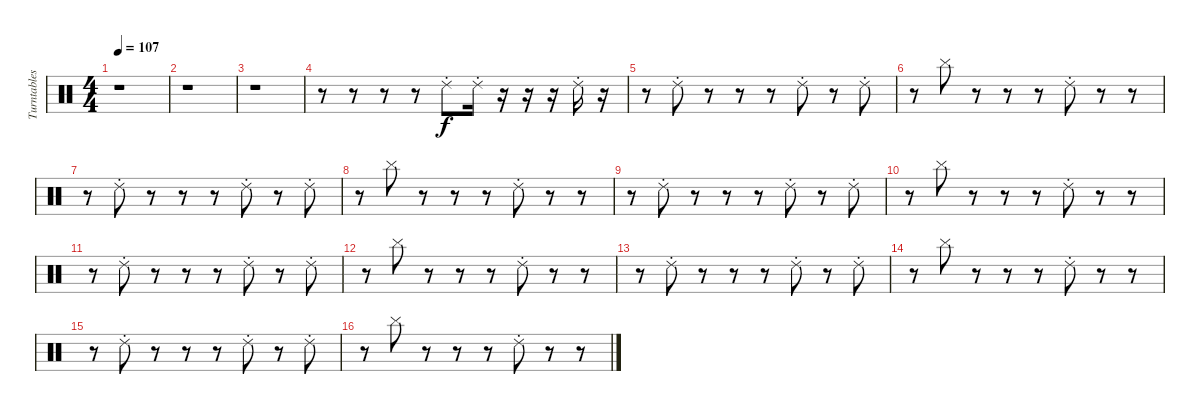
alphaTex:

\track ("Turntables" "Turntables") {instrument percussion}
\staff {score}
\articulation defaults
\ts (4 4)
\tempo 107
\clef neutral
\ks c
r.1{dy f} |
r.1 |
r.1 |
r.8 r.8 r.8 r.8 "Ride (choke) 2".8 "Ride (choke) 2".16 r.16 r.16 r.16 "Ride (choke) 2".16 r.16 |
r.8 "Ride (choke) 2".8 r.8 r.8 r.8 "Ride (choke) 2".8 r.8 "Ride (choke) 2".8 |
r.8 "Cymbal (hit)".8 r.8 r.8 r.8 "Ride (choke) 2".8 r.8 r.8 |
r.8 "Ride (choke) 2".8 r.8 r.8 r.8 "Ride (choke) 2".8 r.8 "Ride (choke) 2".8 |
r.8 "Cymbal (hit)".8 r.8 r.8 r.8 "Ride (choke) 2".8 r.8 r.8 |
r.8 "Ride (choke) 2".8 r.8 r.8 r.8 "Ride (choke) 2".8 r.8 "Ride (choke) 2".8 |
r.8 "Cymbal (hit)".8 r.8 r.8 r.8 "Ride (choke) 2".8 r.8 r.8 |
r.8 "Ride (choke) 2".8 r.8 r.8 r.8 "Ride (choke) 2".8 r.8 "Ride (choke) 2".8 |
r.8 "Cymbal (hit)".8 r.8 r.8 r.8 "Ride (choke) 2".8 r.8 r.8 |
r.8 "Ride (choke) 2".8 r.8 r.8 r.8 "Ride (choke) 2".8 r.8 "Ride (choke) 2".8 |
r.8 "Cymbal (hit)".8 r.8 r.8 r.8 "Ride (choke) 2".8 r.8 r.8 |
r.8 "Ride (choke) 2".8 r.8 r.8 r.8 "Ride (choke) 2".8 r.8 "Ride (choke) 2".8 |
r.8 "Cymbal (hit)".8 r.8 r.8 r.8 "Ride (choke) 2".8 r.8 r.8
